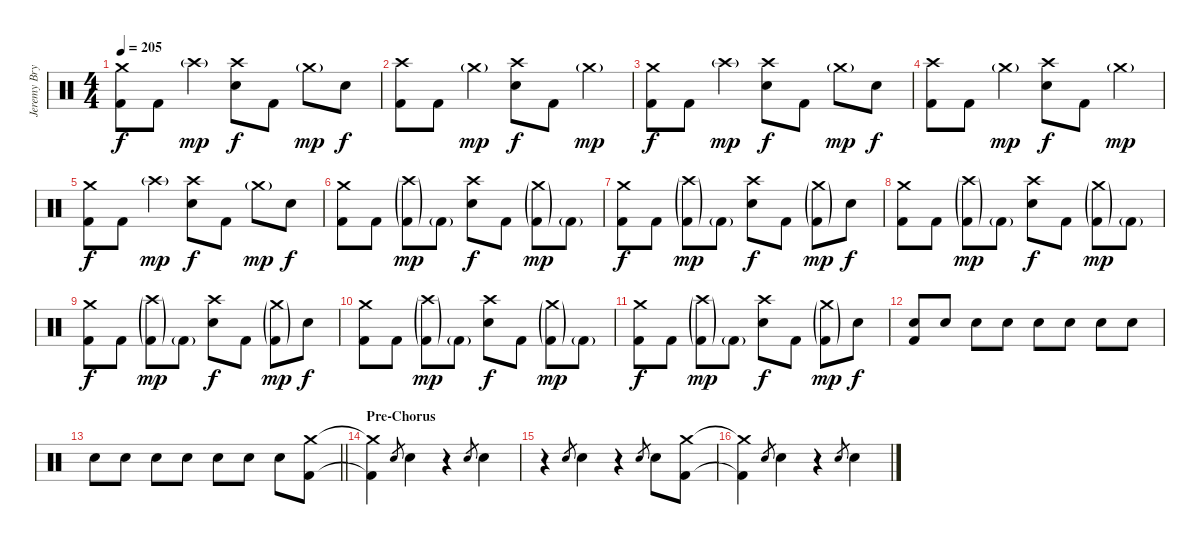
\track ("Jeremy Bryan - Drums" "Jeremy Bry") {instrument percussion}
\staff {score}
\articulation defaults
\ts (4 4)
\tempo 205
\clef neutral
\ks c
("Crash medium (hit)" "Kick (hit) 2").8{dy f} "Kick (hit) 2".8 "Crash high (hit)"{g}.4{dy mp} ("Crash high (hit)" "Electric Snare (hit)").8{dy f} "Kick (hit) 2".8 "Crash medium (hit)"{g}.8{dy mp} "Electric Snare (hit)".8{dy f} |
("Crash high (hit)" "Kick (hit) 2").8 "Kick (hit) 2".8 "Crash medium (hit)"{g}.4{dy mp} ("Crash high (hit)" "Electric Snare (hit)").8{dy f} "Kick (hit) 2".8 "Crash medium (hit)"{g}.4{dy mp} |
("Crash medium (hit)" "Kick (hit) 2").8{dy f} "Kick (hit) 2".8 "Crash high (hit)"{g}.4{dy mp} ("Crash high (hit)" "Electric Snare (hit)").8{dy f} "Kick (hit) 2".8 "Crash medium (hit)"{g}.8{dy mp} "Electric Snare (hit)".8{dy f} |
("Crash high (hit)" "Kick (hit) 2").8 "Kick (hit) 2".8 "Crash medium (hit)"{g}.4{dy mp} ("Crash high (hit)" "Electric Snare (hit)").8{dy f} "Kick (hit) 2".8 "Crash medium (hit)"{g}.4{dy mp} |
("Crash medium (hit)" "Kick (hit) 2").8{dy f} "Kick (hit) 2".8 "Crash high (hit)"{g}.4{dy mp} ("Crash high (hit)" "Electric Snare (hit)").8{dy f} "Kick (hit) 2".8 "Crash medium (hit)"{g}.8{dy mp} "Electric Snare (hit)".8{dy f} |
("Crash medium (hit)" "Kick (hit) 2").8 "Kick (hit) 2".8 ("Crash high (hit)"{g} "Kick (hit) 2"{g}).8{dy mp} "Kick (hit) 2"{g}.8 ("Crash high (hit)" "Electric Snare (hit)").8{dy f} "Kick (hit) 2".8 ("Crash medium (hit)"{g} "Kick (hit) 2"{g}).8{dy mp} "Kick (hit) 2"{g}.8 |
("Crash medium (hit)" "Kick (hit) 2").8{dy f} "Kick (hit) 2".8 ("Crash high (hit)"{g} "Kick (hit) 2"{g}).8{dy mp} "Kick (hit) 2"{g}.8 ("Crash high (hit)" "Electric Snare (hit)").8{dy f} "Kick (hit) 2".8 ("Crash medium (hit)"{g} "Kick (hit) 2"{g}).8{dy mp} "Electric Snare (hit)".8{dy f} |
("Crash medium (hit)" "Kick (hit) 2").8 "Kick (hit) 2".8 ("Crash high (hit)"{g} "Kick (hit) 2"{g}).8{dy mp} "Kick (hit) 2"{g}.8 ("Crash high (hit)" "Electric Snare (hit)").8{dy f} "Kick (hit) 2".8 ("Crash medium (hit)"{g} "Kick (hit) 2"{g}).8{dy mp} "Kick (hit) 2"{g}.8 |
("Crash medium (hit)" "Kick (hit) 2").8{dy f} "Kick (hit) 2".8 ("Crash high (hit)"{g} "Kick (hit) 2"{g}).8{dy mp} "Kick (hit) 2"{g}.8 ("Crash high (hit)" "Electric Snare (hit)").8{dy f} "Kick (hit) 2".8 ("Crash medium (hit)"{g} "Kick (hit) 2"{g}).8{dy mp} "Electric Snare (hit)".8{dy f} |
("Crash medium (hit)" "Kick (hit) 2").8 "Kick (hit) 2".8 ("Crash high (hit)"{g} "Kick (hit) 2"{g}).8{dy mp} "Kick (hit) 2"{g}.8 ("Crash high (hit)" "Electric Snare (hit)").8{dy f} "Kick (hit) 2".8 ("Crash medium (hit)"{g} "Kick (hit) 2"{g}).8{dy mp} "Kick (hit) 2"{g}.8 |
("Crash medium (hit)" "Kick (hit) 2").8{dy f} "Kick (hit) 2".8 ("Crash high (hit)"{g} "Kick (hit) 2"{g}).8{dy mp} "Kick (hit) 2"{g}.8 ("Crash high (hit)" "Electric Snare (hit)").8{dy f} "Kick (hit) 2".8 ("Crash medium (hit)"{g} "Kick (hit) 2"{g}).8{dy mp} "Electric Snare (hit)".8{dy f} |
("Electric Snare (hit)" "Kick (hit) 2").8 "Electric Snare (hit)".8{volume 6} "Electric Snare (hit)".8{volume 12} "Electric Snare (hit)".8 "Electric Snare (hit)".8 "Electric Snare (hit)".8 "Electric Snare (hit)".8 "Electric Snare (hit)".8 |
\barLineRight lightlight "Electric Snare (hit)".8 "Electric Snare (hit)".8 "Electric Snare (hit)".8 "Electric Snare (hit)".8 "Electric Snare (hit)".8 "Electric Snare (hit)".8 "Electric Snare (hit)".8
("Crash medium (hit)" "Kick (hit) 2").8 |
\section ("" "Pre-Chorus")
("Crash medium (hit)"{t} "Kick (hit) 2"{t}).4 "Electric Snare (hit)".8{gr} "Electric Snare (hit)".4 r.4 "Electric Snare (hit)".8{gr} "Electric Snare (hit)".4 |
r.4 "Electric Snare (hit)".8{gr} "Electric Snare (hit)".4 r.4 "Electric Snare (hit)".8{gr} "Electric Snare (hit)".8 ("Crash medium (hit)" "Kick (hit) 2").8 |
("Crash medium (hit)"{t} "Kick (hit) 2"{t}).4 "Electric Snare (hit)".8{gr} "Electric Snare (hit)".4 r.4 "Electric Snare (hit)".8{gr} "Electric Snare (hit)".4
